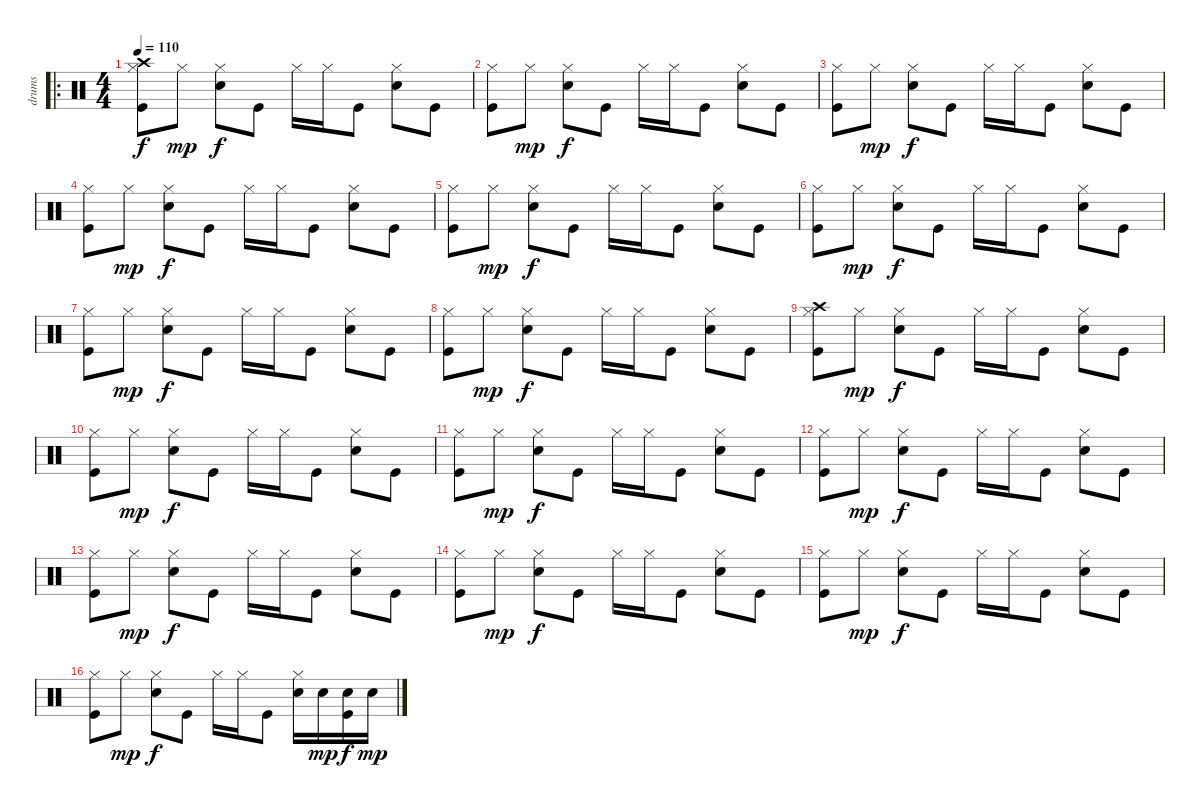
\track ("drums" "drums") {instrument percussion}
\staff {score}
\articulation defaults
\ro
\ts (4 4)
\tempo 110
\clef neutral
\ks c
("Hi-Hat (closed)" "Crash high (hit)" "Kick (hit)").8{dy f} "Hi-Hat (closed)".8{dy mp} ("Hi-Hat (closed)" "Electric Snare (hit)").8{dy f} "Kick (hit)".8 "Hi-Hat (closed)".16 "Hi-Hat (closed)".16 "Kick (hit)".8 ("Hi-Hat (closed)" "Electric Snare (hit)").8 "Kick (hit)".8 |
("Hi-Hat (closed)" "Kick (hit)").8 "Hi-Hat (closed)".8{dy mp} ("Hi-Hat (closed)" "Electric Snare (hit)").8{dy f} "Kick (hit)".8 "Hi-Hat (closed)".16 "Hi-Hat (closed)".16 "Kick (hit)".8 ("Hi-Hat (closed)" "Electric Snare (hit)").8 "Kick (hit)".8 |
("Hi-Hat (closed)" "Kick (hit)").8 "Hi-Hat (closed)".8{dy mp} ("Hi-Hat (closed)" "Electric Snare (hit)").8{dy f} "Kick (hit)".8 "Hi-Hat (closed)".16 "Hi-Hat (closed)".16 "Kick (hit)".8 ("Hi-Hat (closed)" "Electric Snare (hit)").8 "Kick (hit)".8 |
("Hi-Hat (closed)" "Kick (hit)").8 "Hi-Hat (closed)".8{dy mp} ("Hi-Hat (closed)" "Electric Snare (hit)").8{dy f} "Kick (hit)".8 "Hi-Hat (closed)".16 "Hi-Hat (closed)".16 "Kick (hit)".8 ("Hi-Hat (closed)" "Electric Snare (hit)").8 "Kick (hit)".8 |
("Hi-Hat (closed)" "Kick (hit)").8 "Hi-Hat (closed)".8{dy mp} ("Hi-Hat (closed)" "Electric Snare (hit)").8{dy f} "Kick (hit)".8 "Hi-Hat (closed)".16 "Hi-Hat (closed)".16 "Kick (hit)".8 ("Hi-Hat (closed)" "Electric Snare (hit)").8 "Kick (hit)".8 |
("Hi-Hat (closed)" "Kick (hit)").8 "Hi-Hat (closed)".8{dy mp} ("Hi-Hat (closed)" "Electric Snare (hit)").8{dy f} "Kick (hit)".8 "Hi-Hat (closed)".16 "Hi-Hat (closed)".16 "Kick (hit)".8 ("Hi-Hat (closed)" "Electric Snare (hit)").8 "Kick (hit)".8 |
("Hi-Hat (closed)" "Kick (hit)").8 "Hi-Hat (closed)".8{dy mp} ("Hi-Hat (closed)" "Electric Snare (hit)").8{dy f} "Kick (hit)".8 "Hi-Hat (closed)".16 "Hi-Hat (closed)".16 "Kick (hit)".8 ("Hi-Hat (closed)" "Electric Snare (hit)").8 "Kick (hit)".8 |
("Hi-Hat (closed)" "Kick (hit)").8 "Hi-Hat (closed)".8{dy mp} ("Hi-Hat (closed)" "Electric Snare (hit)").8{dy f} "Kick (hit)".8 "Hi-Hat (closed)".16 "Hi-Hat (closed)".16 "Kick (hit)".8 ("Hi-Hat (closed)" "Electric Snare (hit)").8 "Kick (hit)".8 |
("Hi-Hat (closed)" "Crash high (hit)" "Kick (hit)").8 "Hi-Hat (closed)".8{dy mp} ("Hi-Hat (closed)" "Electric Snare (hit)").8{dy f} "Kick (hit)".8 "Hi-Hat (closed)".16 "Hi-Hat (closed)".16 "Kick (hit)".8 ("Hi-Hat (closed)" "Electric Snare (hit)").8 "Kick (hit)".8 |
("Hi-Hat (closed)" "Kick (hit)").8 "Hi-Hat (closed)".8{dy mp} ("Hi-Hat (closed)" "Electric Snare (hit)").8{dy f} "Kick (hit)".8 "Hi-Hat (closed)".16 "Hi-Hat (closed)".16 "Kick (hit)".8 ("Hi-Hat (closed)" "Electric Snare (hit)").8 "Kick (hit)".8 |
("Hi-Hat (closed)" "Kick (hit)").8 "Hi-Hat (closed)".8{dy mp} ("Hi-Hat (closed)" "Electric Snare (hit)").8{dy f} "Kick (hit)".8 "Hi-Hat (closed)".16 "Hi-Hat (closed)".16 "Kick (hit)".8 ("Hi-Hat (closed)" "Electric Snare (hit)").8 "Kick (hit)".8 |
("Hi-Hat (closed)" "Kick (hit)").8 "Hi-Hat (closed)".8{dy mp} ("Hi-Hat (closed)" "Electric Snare (hit)").8{dy f} "Kick (hit)".8 "Hi-Hat (closed)".16 "Hi-Hat (closed)".16 "Kick (hit)".8 ("Hi-Hat (closed)" "Electric Snare (hit)").8 "Kick (hit)".8 |
("Hi-Hat (closed)" "Kick (hit)").8 "Hi-Hat (closed)".8{dy mp} ("Hi-Hat (closed)" "Electric Snare (hit)").8{dy f} "Kick (hit)".8 "Hi-Hat (closed)".16 "Hi-Hat (closed)".16 "Kick (hit)".8 ("Hi-Hat (closed)" "Electric Snare (hit)").8 "Kick (hit)".8 |
("Hi-Hat (closed)" "Kick (hit)").8 "Hi-Hat (closed)".8{dy mp} ("Hi-Hat (closed)" "Electric Snare (hit)").8{dy f} "Kick (hit)".8 "Hi-Hat (closed)".16 "Hi-Hat (closed)".16 "Kick (hit)".8 ("Hi-Hat (closed)" "Electric Snare (hit)").8 "Kick (hit)".8 |
("Hi-Hat (closed)" "Kick (hit)").8 "Hi-Hat (closed)".8{dy mp} ("Hi-Hat (closed)" "Electric Snare (hit)").8{dy f} "Kick (hit)".8 "Hi-Hat (closed)".16 "Hi-Hat (closed)".16 "Kick (hit)".8 ("Hi-Hat (closed)" "Electric Snare (hit)").8 "Kick (hit)".8 |
("Hi-Hat (closed)" "Kick (hit)").8 "Hi-Hat (closed)".8{dy mp} ("Hi-Hat (closed)" "Electric Snare (hit)").8{dy f} "Kick (hit)".8 "Hi-Hat (closed)".16 "Hi-Hat (closed)".16 "Kick (hit)".8 ("Hi-Hat (closed)" "Electric Snare (hit)").16 "Electric Snare (hit)".16{dy mp} ("Electric Snare (hit)" "Kick (hit)").16{dy f} "Electric Snare (hit)".16{dy mp}
